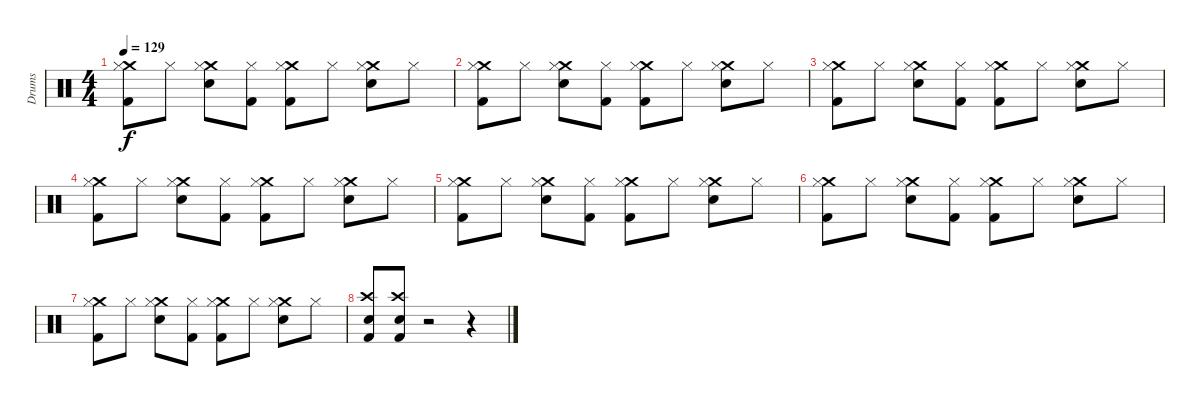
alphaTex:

\track ("Drums" "Drums") {instrument percussion}
\staff {score}
\articulation defaults
\ts (4 4)
\tempo 129
\clef neutral
\ks c
("Kick (hit) 2" "Crash medium (hit)" "Hi-Hat (closed)").8{dy f} "Hi-Hat (closed)".8 ("Crash medium (hit)" "Electric Snare (hit)" "Hi-Hat (closed)").8 ("Kick (hit) 2" "Hi-Hat (closed)").8 ("Crash medium (hit)" "Kick (hit) 2" "Hi-Hat (closed)").8 "Hi-Hat (closed)".8 ("Crash medium (hit)" "Electric Snare (hit)" "Hi-Hat (closed)").8 "Hi-Hat (closed)".8 |
("Kick (hit) 2" "Crash medium (hit)" "Hi-Hat (closed)").8 "Hi-Hat (closed)".8 ("Crash medium (hit)" "Electric Snare (hit)" "Hi-Hat (closed)").8 ("Kick (hit) 2" "Hi-Hat (closed)").8 ("Crash medium (hit)" "Kick (hit) 2" "Hi-Hat (closed)").8 "Hi-Hat (closed)".8 ("Crash medium (hit)" "Electric Snare (hit)" "Hi-Hat (closed)").8 "Hi-Hat (closed)".8 |
("Kick (hit) 2" "Crash medium (hit)" "Hi-Hat (closed)").8 "Hi-Hat (closed)".8 ("Crash medium (hit)" "Electric Snare (hit)" "Hi-Hat (closed)").8 ("Kick (hit) 2" "Hi-Hat (closed)").8 ("Crash medium (hit)" "Kick (hit) 2" "Hi-Hat (closed)").8 "Hi-Hat (closed)".8 ("Crash medium (hit)" "Electric Snare (hit)" "Hi-Hat (closed)").8 "Hi-Hat (closed)".8 |
("Kick (hit) 2" "Crash medium (hit)" "Hi-Hat (closed)").8 "Hi-Hat (closed)".8 ("Crash medium (hit)" "Electric Snare (hit)" "Hi-Hat (closed)").8 ("Kick (hit) 2" "Hi-Hat (closed)").8 ("Crash medium (hit)" "Kick (hit) 2" "Hi-Hat (closed)").8 "Hi-Hat (closed)".8 ("Crash medium (hit)" "Electric Snare (hit)" "Hi-Hat (closed)").8 "Hi-Hat (closed)".8 |
("Kick (hit) 2" "Crash medium (hit)" "Hi-Hat (closed)").8 "Hi-Hat (closed)".8 ("Crash medium (hit)" "Electric Snare (hit)" "Hi-Hat (closed)").8 ("Kick (hit) 2" "Hi-Hat (closed)").8 ("Crash medium (hit)" "Kick (hit) 2" "Hi-Hat (closed)").8 "Hi-Hat (closed)".8 ("Crash medium (hit)" "Electric Snare (hit)" "Hi-Hat (closed)").8 "Hi-Hat (closed)".8 |
("Kick (hit) 2" "Crash medium (hit)" "Hi-Hat (closed)").8 "Hi-Hat (closed)".8 ("Crash medium (hit)" "Electric Snare (hit)" "Hi-Hat (closed)").8 ("Kick (hit) 2" "Hi-Hat (closed)").8 ("Crash medium (hit)" "Kick (hit) 2" "Hi-Hat (closed)").8 "Hi-Hat (closed)".8 ("Crash medium (hit)" "Electric Snare (hit)" "Hi-Hat (closed)").8 "Hi-Hat (closed)".8 |
("Kick (hit) 2" "Crash medium (hit)" "Hi-Hat (closed)").8 "Hi-Hat (closed)".8 ("Crash medium (hit)" "Electric Snare (hit)" "Hi-Hat (closed)").8 ("Kick (hit) 2" "Hi-Hat (closed)").8 ("Crash medium (hit)" "Kick (hit) 2" "Hi-Hat (closed)").8 "Hi-Hat (closed)".8 ("Crash medium (hit)" "Electric Snare (hit)" "Hi-Hat (closed)").8 "Hi-Hat (closed)".8 |
("Crash high (hit)" "Kick (hit) 2" "Snare (hit) 2").8 ("Crash high (hit)" "Kick (hit) 2" "Snare (hit) 2").8 r.2 r.4
